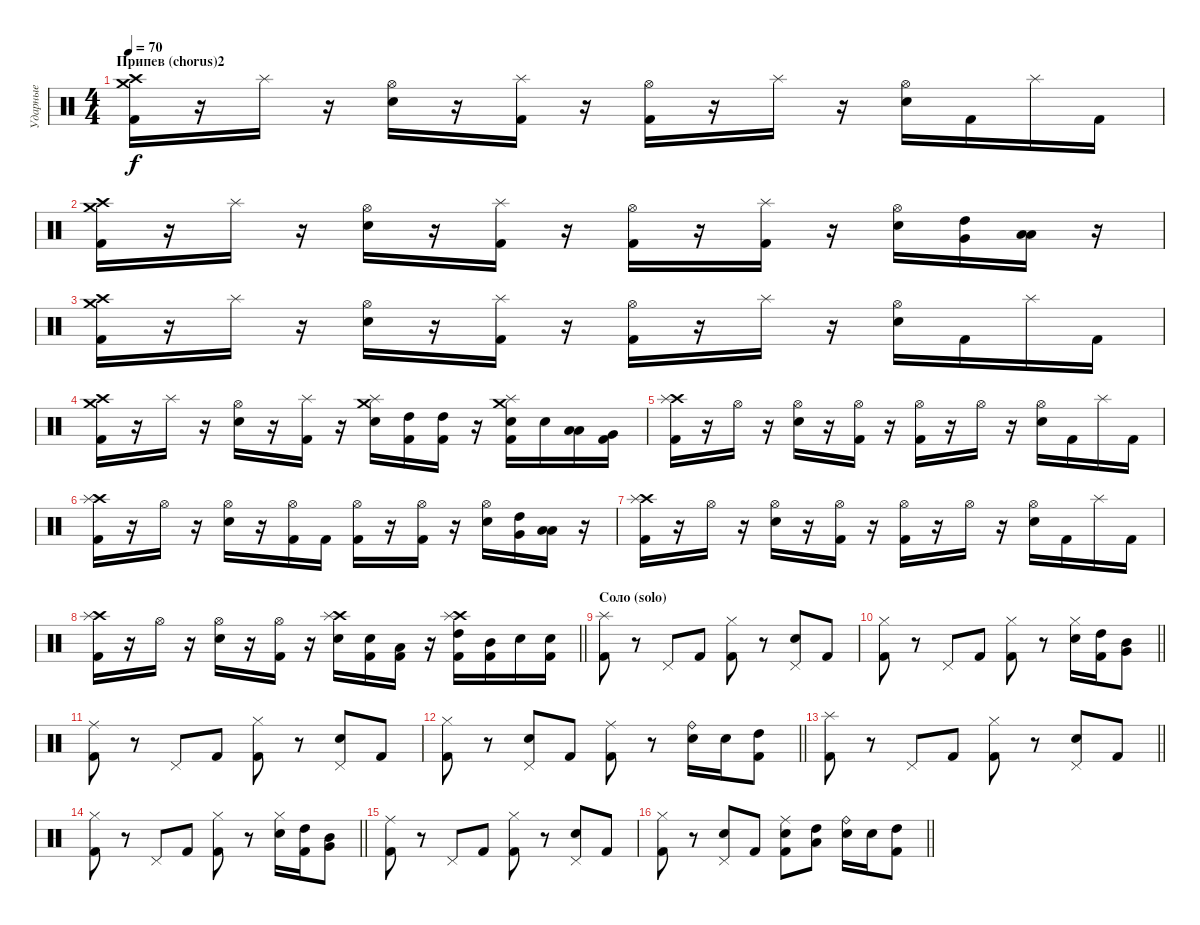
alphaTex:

\track ("Ударные" "Ударные") {instrument percussion}
\staff {score}
\articulation defaults
\ts (4 4)
\section ("" "Припев (chorus)2")
\tempo 70
\clef neutral
\ks c
("Crash high (hit)" "Crash medium (hit)" "Kick (hit) 2").16{dy f} r.16 "Splash (hit)".16 r.16 ("Hi-Hat (open)" "Snare (hit) 2").16 r.16 ("Splash (hit)" "Kick (hit) 2").16 r.16 ("Hi-Hat (open)" "Kick (hit) 2").16 r.16 "Splash (hit)".16 r.16 ("Hi-Hat (open)" "Snare (hit) 2").16 "Kick (hit) 2".16 "Splash (hit)".16 "Kick (hit) 2".16 |
("Crash high (hit)" "Crash medium (hit)" "Kick (hit) 2").16 r.16 "Splash (hit)".16 r.16 ("Hi-Hat (open)" "Snare (hit) 2").16 r.16 ("Splash (hit)" "Kick (hit) 2").16 r.16 ("Hi-Hat (open)" "Kick (hit) 2").16 r.16 ("Splash (hit)" "Kick (hit) 2").16 r.16 ("Hi-Hat (open)" "Snare (hit) 2").16 ("High Tom (hit)" "Very Low Tom (hit)").16 ("Low Tom (hit)" "Low Floor Tom (hit)").16 r.16 |
("Crash high (hit)" "Crash medium (hit)" "Kick (hit) 2").16 r.16 "Splash (hit)".16 r.16 ("Hi-Hat (open)" "Snare (hit) 2").16 r.16 ("Splash (hit)" "Kick (hit) 2").16 r.16 ("Hi-Hat (open)" "Kick (hit) 2").16 r.16 "Splash (hit)".16 r.16 ("Hi-Hat (open)" "Snare (hit) 2").16 "Kick (hit) 2".16 "Splash (hit)".16 "Kick (hit) 2".16 |
("Crash high (hit)" "Crash medium (hit)" "Kick (hit) 2").16 r.16 "Splash (hit)".16 r.16 ("Hi-Hat (open)" "Snare (hit) 2").16 r.16 ("Splash (hit)" "Kick (hit) 2").16 r.16 ("Crash medium (hit)" "Splash (hit)" "Snare (hit) 2").16 ("High Tom (hit)" "Kick (hit) 2").16 ("High Tom (hit)" "Kick (hit) 2").16 r.16 ("Crash medium (hit)" "Splash (hit)" "Snare (hit) 2" "Kick (hit) 2").16 "Snare (hit) 2".16 ("Low Tom (hit)" "Low Floor Tom (hit)").16 ("Very Low Tom (hit)" "Kick (hit) 2").16 |
("Crash high (hit)" "Splash (hit)" "Kick (hit) 2").16 r.16 "Hi-Hat (open)".16 r.16 ("Hi-Hat (open)" "Snare (hit) 2").16 r.16 ("Hi-Hat (open)" "Kick (hit) 2").16 r.16 ("Hi-Hat (open)" "Kick (hit) 2").16 r.16 "Hi-Hat (open)".16 r.16 ("Hi-Hat (open)" "Snare (hit) 2").16 "Kick (hit) 2".16 "Splash (hit)".16 "Kick (hit) 2".16 |
("Crash high (hit)" "Splash (hit)" "Kick (hit) 2").16 r.16 "Hi-Hat (open)".16 r.16 ("Hi-Hat (open)" "Snare (hit) 2").16 r.16 ("Hi-Hat (open)" "Kick (hit) 2").16 "Kick (hit) 2".16 ("Hi-Hat (open)" "Kick (hit) 2").16 r.16 ("Hi-Hat (open)" "Kick (hit) 2").16 r.16 ("Hi-Hat (open)" "Snare (hit) 2").16 ("High Tom (hit)" "Very Low Tom (hit)").16 ("Low Tom (hit)" "Low Floor Tom (hit)").16 r.16 |
("Crash high (hit)" "Splash (hit)" "Kick (hit) 2").16 r.16 "Hi-Hat (open)".16 r.16 ("Hi-Hat (open)" "Snare (hit) 2").16 r.16 ("Hi-Hat (open)" "Kick (hit) 2").16 r.16 ("Hi-Hat (open)" "Kick (hit) 2").16 r.16 "Hi-Hat (open)".16 r.16 ("Hi-Hat (open)" "Snare (hit) 2").16 "Kick (hit) 2".16 "Splash (hit)".16 "Kick (hit) 2".16 |
\barLineRight lightlight
("Crash high (hit)" "Splash (hit)" "Kick (hit) 2").16 r.16 "Hi-Hat (open)".16 r.16 ("Hi-Hat (open)" "Snare (hit) 2").16 r.16 ("Hi-Hat (open)" "Kick (hit) 2").16 r.16 ("Crash high (hit)" "Splash (hit)" "Snare (hit) 2").16 ("Snare (hit) 2" "Kick (hit) 2").16 ("Low Tom (hit)" "Kick (hit) 2").16 r.16 ("Crash high (hit)" "Splash (hit)" "High Tom (hit)" "Kick (hit) 2").16 ("Mid Tom (hit)" "Kick (hit) 2").16 "Snare (hit) 2".16 ("Snare (hit) 2" "Kick (hit) 2").16 |
\section ("" "Соло (solo)")
("Splash (hit)" "Kick (hit) 2").8 r.8 "Pedal Hi-Hat (hit)".8 "Kick (hit) 2".8 ("Hi-Hat (closed)" "Kick (hit) 2").8 r.8 ("Pedal Hi-Hat (hit)" "Snare (hit) 2").8 "Kick (hit) 2".8 |
\barLineRight lightlight
("Hi-Hat (closed)" "Kick (hit) 2").8 r.8 "Pedal Hi-Hat (hit)".8 "Kick (hit) 2".8 ("Hi-Hat (closed)" "Kick (hit) 2").8 r.8 ("Hi-Hat (closed)" "Snare (hit) 2").16 ("High Tom (hit)" "Kick (hit) 2").16 ("Mid Tom (hit)" "Very Low Tom (hit)").8 |
("Ride (middle)" "Kick (hit) 2").8 r.8 "Pedal Hi-Hat (hit)".8 "Kick (hit) 2".8 ("Hi-Hat (closed)" "Kick (hit) 2").8 r.8 ("Pedal Hi-Hat (hit)" "Snare (hit) 2").8 "Kick (hit) 2".8 |
\barLineRight lightlight
("Hi-Hat (closed)" "Kick (hit) 2").8 r.8 ("Pedal Hi-Hat (hit)" "Snare (hit) 2").8 "Kick (hit) 2".8 ("Ride (middle)" "Kick (hit) 2").8 r.8 ("Ride (bell)" "Snare (hit) 2").16 "Snare (hit) 2".16 ("High Tom (hit)" "Kick (hit) 2").8 |
\barLineRight lightlight
("Splash (hit)" "Kick (hit) 2").8 r.8 "Pedal Hi-Hat (hit)".8 "Kick (hit) 2".8 ("Hi-Hat (closed)" "Kick (hit) 2").8 r.8 ("Pedal Hi-Hat (hit)" "Snare (hit) 2").8 "Kick (hit) 2".8 |
\barLineRight lightlight
("Hi-Hat (closed)" "Kick (hit) 2").8 r.8 "Pedal Hi-Hat (hit)".8 "Kick (hit) 2".8 ("Hi-Hat (closed)" "Kick (hit) 2").8 r.8 ("Hi-Hat (closed)" "Snare (hit) 2").16 ("High Tom (hit)" "Kick (hit) 2").16 ("Mid Tom (hit)" "Very Low Tom (hit)").8 |
("Ride (middle)" "Kick (hit) 2").8 r.8 "Pedal Hi-Hat (hit)".8 "Kick (hit) 2".8 ("Hi-Hat (closed)" "Kick (hit) 2").8 r.8 ("Pedal Hi-Hat (hit)" "Snare (hit) 2").8 "Kick (hit) 2".8 |
\barLineRight lightlight
("Hi-Hat (closed)" "Kick (hit) 2").8 r.8 ("Pedal Hi-Hat (hit)" "Snare (hit) 2").8 "Kick (hit) 2".8 ("Ride (middle)" "Snare (hit) 2" "Kick (hit) 2").8 ("High Tom (hit)" "Low Tom (hit)").8 ("Ride (bell)" "Snare (hit) 2").16 "Snare (hit) 2".16 ("High Tom (hit)" "Kick (hit) 2").8
